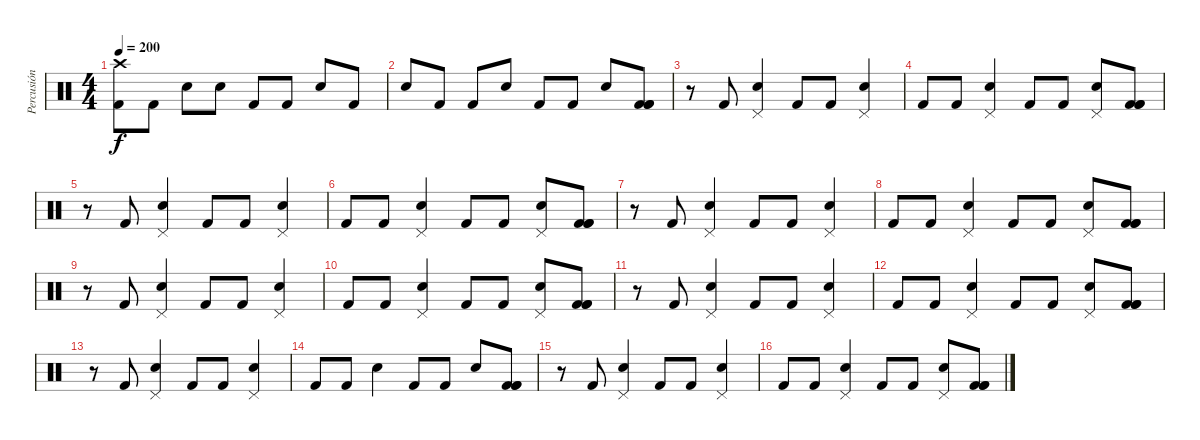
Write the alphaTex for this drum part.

\track ("Percusión" "Percusión") {instrument percussion}
\staff {score}
\articulation defaults
\ts (4 4)
\tempo 200
\clef neutral
\ks c
("Kick (hit) 2" "Crash high (hit)").8{dy f} "Kick (hit) 2".8 "Electric Snare (hit)".8 "Electric Snare (hit)".8 "Kick (hit) 2".8 "Kick (hit) 2".8 "Electric Snare (hit)".8 "Kick (hit) 2".8 |
"Electric Snare (hit)".8 "Kick (hit) 2".8 "Kick (hit) 2".8 "Electric Snare (hit)".8 "Kick (hit) 2".8 "Kick (hit) 2".8 "Electric Snare (hit)".8 ("Kick (hit) 2" "Kick (hit) 2" "Kick (hit) 2").8 |
r.8 "Kick (hit) 2".8 ("Electric Snare (hit)" "Pedal Hi-Hat (hit)").4 "Kick (hit) 2".8 "Kick (hit) 2".8 ("Electric Snare (hit)" "Pedal Hi-Hat (hit)").4 |
"Kick (hit) 2".8 "Kick (hit) 2".8 ("Electric Snare (hit)" "Pedal Hi-Hat (hit)").4 "Kick (hit) 2".8 "Kick (hit) 2".8 ("Electric Snare (hit)" "Pedal Hi-Hat (hit)").8 ("Kick (hit) 2" "Kick (hit) 2" "Kick (hit) 2").8 |
r.8 "Kick (hit) 2".8 ("Electric Snare (hit)" "Pedal Hi-Hat (hit)").4 "Kick (hit) 2".8 "Kick (hit) 2".8 ("Electric Snare (hit)" "Pedal Hi-Hat (hit)").4 |
"Kick (hit) 2".8 "Kick (hit) 2".8 ("Electric Snare (hit)" "Pedal Hi-Hat (hit)").4 "Kick (hit) 2".8 "Kick (hit) 2".8 ("Electric Snare (hit)" "Pedal Hi-Hat (hit)").8 ("Kick (hit) 2" "Kick (hit) 2" "Kick (hit) 2").8 |
r.8 "Kick (hit) 2".8 ("Electric Snare (hit)" "Pedal Hi-Hat (hit)").4 "Kick (hit) 2".8 "Kick (hit) 2".8 ("Electric Snare (hit)" "Pedal Hi-Hat (hit)").4 |
"Kick (hit) 2".8 "Kick (hit) 2".8 ("Electric Snare (hit)" "Pedal Hi-Hat (hit)").4 "Kick (hit) 2".8 "Kick (hit) 2".8 ("Electric Snare (hit)" "Pedal Hi-Hat (hit)").8 ("Kick (hit) 2" "Kick (hit) 2" "Kick (hit) 2").8 |
r.8 "Kick (hit) 2".8 ("Electric Snare (hit)" "Pedal Hi-Hat (hit)").4 "Kick (hit) 2".8 "Kick (hit) 2".8 ("Electric Snare (hit)" "Pedal Hi-Hat (hit)").4 |
"Kick (hit) 2".8 "Kick (hit) 2".8 ("Electric Snare (hit)" "Pedal Hi-Hat (hit)").4 "Kick (hit) 2".8 "Kick (hit) 2".8 ("Electric Snare (hit)" "Pedal Hi-Hat (hit)").8 ("Kick (hit) 2" "Kick (hit) 2" "Kick (hit) 2").8 |
r.8 "Kick (hit) 2".8 ("Electric Snare (hit)" "Pedal Hi-Hat (hit)").4 "Kick (hit) 2".8 "Kick (hit) 2".8 ("Electric Snare (hit)" "Pedal Hi-Hat (hit)").4 |
"Kick (hit) 2".8 "Kick (hit) 2".8 ("Electric Snare (hit)" "Pedal Hi-Hat (hit)").4 "Kick (hit) 2".8 "Kick (hit) 2".8 ("Electric Snare (hit)" "Pedal Hi-Hat (hit)").8 ("Kick (hit) 2" "Kick (hit) 2" "Kick (hit) 2").8 |
r.8 "Kick (hit) 2".8 ("Electric Snare (hit)" "Pedal Hi-Hat (hit)").4 "Kick (hit) 2".8 "Kick (hit) 2".8 ("Electric Snare (hit)" "Pedal Hi-Hat (hit)").4 |
"Kick (hit) 2".8 "Kick (hit) 2".8 "Electric Snare (hit)".4 "Kick (hit) 2".8 "Kick (hit) 2".8 "Electric Snare (hit)".8 ("Kick (hit) 2" "Kick (hit) 2" "Kick (hit) 2").8 |
r.8 "Kick (hit) 2".8 ("Electric Snare (hit)" "Pedal Hi-Hat (hit)").4 "Kick (hit) 2".8 "Kick (hit) 2".8 ("Electric Snare (hit)" "Pedal Hi-Hat (hit)").4 |
"Kick (hit) 2".8 "Kick (hit) 2".8 ("Electric Snare (hit)" "Pedal Hi-Hat (hit)").4 "Kick (hit) 2".8 "Kick (hit) 2".8 ("Electric Snare (hit)" "Pedal Hi-Hat (hit)").8 ("Kick (hit) 2" "Kick (hit) 2" "Kick (hit) 2").8
